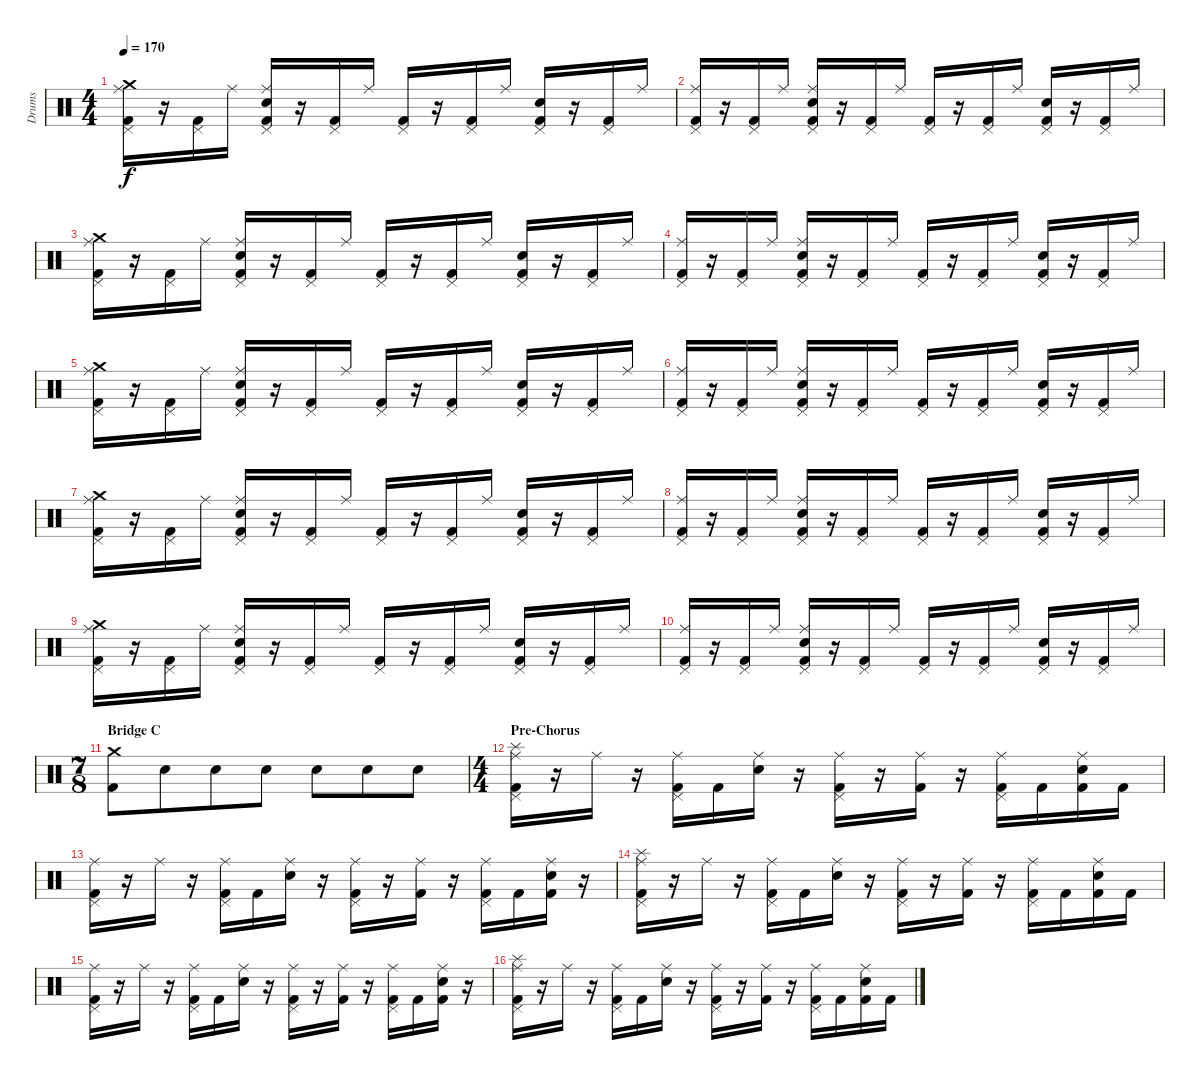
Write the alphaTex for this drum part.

\track ("Drums" "Drums") {instrument percussion}
\staff {score}
\articulation defaults
\ts (4 4)
\tempo 170
\clef neutral
\ks c
("Kick (hit) 2" "Pedal Hi-Hat (hit)" "Ride (middle)" "Crash medium (hit)").16{dy f} r.16 ("Kick (hit) 2" "Pedal Hi-Hat (hit)").16 "Ride (middle)".16 ("Kick (hit) 2" "Pedal Hi-Hat (hit)" "Snare (hit) 2" "Ride (middle)").16 r.16 ("Kick (hit) 2" "Pedal Hi-Hat (hit)").16 "Ride (middle)".16 ("Kick (hit) 2" "Pedal Hi-Hat (hit)").16 r.16 ("Kick (hit) 2" "Pedal Hi-Hat (hit)").16 "Ride (middle)".16 ("Kick (hit) 2" "Pedal Hi-Hat (hit)" "Snare (hit) 2").16 r.16 ("Kick (hit) 2" "Pedal Hi-Hat (hit)").16 "Ride (middle)".16 |
("Kick (hit) 2" "Pedal Hi-Hat (hit)" "Ride (middle)").16 r.16 ("Kick (hit) 2" "Pedal Hi-Hat (hit)").16 "Ride (middle)".16 ("Kick (hit) 2" "Pedal Hi-Hat (hit)" "Snare (hit) 2" "Ride (middle)").16 r.16 ("Kick (hit) 2" "Pedal Hi-Hat (hit)").16 "Ride (middle)".16 ("Kick (hit) 2" "Pedal Hi-Hat (hit)").16 r.16 ("Kick (hit) 2" "Pedal Hi-Hat (hit)").16 "Ride (middle)".16 ("Kick (hit) 2" "Pedal Hi-Hat (hit)" "Snare (hit) 2").16 r.16 ("Kick (hit) 2" "Pedal Hi-Hat (hit)").16 "Ride (middle)".16 |
("Kick (hit) 2" "Pedal Hi-Hat (hit)" "Ride (middle)" "Crash medium (hit)").16 r.16 ("Kick (hit) 2" "Pedal Hi-Hat (hit)").16 "Ride (middle)".16 ("Kick (hit) 2" "Pedal Hi-Hat (hit)" "Snare (hit) 2" "Ride (middle)").16 r.16 ("Kick (hit) 2" "Pedal Hi-Hat (hit)").16 "Ride (middle)".16 ("Kick (hit) 2" "Pedal Hi-Hat (hit)").16 r.16 ("Kick (hit) 2" "Pedal Hi-Hat (hit)").16 "Ride (middle)".16 ("Kick (hit) 2" "Pedal Hi-Hat (hit)" "Snare (hit) 2").16 r.16 ("Kick (hit) 2" "Pedal Hi-Hat (hit)").16 "Ride (middle)".16 |
("Kick (hit) 2" "Pedal Hi-Hat (hit)" "Ride (middle)").16 r.16 ("Kick (hit) 2" "Pedal Hi-Hat (hit)").16 "Ride (middle)".16 ("Kick (hit) 2" "Pedal Hi-Hat (hit)" "Snare (hit) 2" "Ride (middle)").16 r.16 ("Kick (hit) 2" "Pedal Hi-Hat (hit)").16 "Ride (middle)".16 ("Kick (hit) 2" "Pedal Hi-Hat (hit)").16 r.16 ("Kick (hit) 2" "Pedal Hi-Hat (hit)").16 "Ride (middle)".16 ("Kick (hit) 2" "Pedal Hi-Hat (hit)" "Snare (hit) 2").16 r.16 ("Kick (hit) 2" "Pedal Hi-Hat (hit)").16 "Ride (middle)".16 |
("Kick (hit) 2" "Pedal Hi-Hat (hit)" "Ride (middle)" "Crash medium (hit)").16 r.16 ("Kick (hit) 2" "Pedal Hi-Hat (hit)").16 "Ride (middle)".16 ("Kick (hit) 2" "Pedal Hi-Hat (hit)" "Snare (hit) 2" "Ride (middle)").16 r.16 ("Kick (hit) 2" "Pedal Hi-Hat (hit)").16 "Ride (middle)".16 ("Kick (hit) 2" "Pedal Hi-Hat (hit)").16 r.16 ("Kick (hit) 2" "Pedal Hi-Hat (hit)").16 "Ride (middle)".16 ("Kick (hit) 2" "Pedal Hi-Hat (hit)" "Snare (hit) 2").16 r.16 ("Kick (hit) 2" "Pedal Hi-Hat (hit)").16 "Ride (middle)".16 |
("Kick (hit) 2" "Pedal Hi-Hat (hit)" "Ride (middle)").16 r.16 ("Kick (hit) 2" "Pedal Hi-Hat (hit)").16 "Ride (middle)".16 ("Kick (hit) 2" "Pedal Hi-Hat (hit)" "Snare (hit) 2" "Ride (middle)").16 r.16 ("Kick (hit) 2" "Pedal Hi-Hat (hit)").16 "Ride (middle)".16 ("Kick (hit) 2" "Pedal Hi-Hat (hit)").16 r.16 ("Kick (hit) 2" "Pedal Hi-Hat (hit)").16 "Ride (middle)".16 ("Kick (hit) 2" "Pedal Hi-Hat (hit)" "Snare (hit) 2").16 r.16 ("Kick (hit) 2" "Pedal Hi-Hat (hit)").16 "Ride (middle)".16 |
("Kick (hit) 2" "Pedal Hi-Hat (hit)" "Ride (middle)" "Crash medium (hit)").16 r.16 ("Kick (hit) 2" "Pedal Hi-Hat (hit)").16 "Ride (middle)".16 ("Kick (hit) 2" "Pedal Hi-Hat (hit)" "Snare (hit) 2" "Ride (middle)").16 r.16 ("Kick (hit) 2" "Pedal Hi-Hat (hit)").16 "Ride (middle)".16 ("Kick (hit) 2" "Pedal Hi-Hat (hit)").16 r.16 ("Kick (hit) 2" "Pedal Hi-Hat (hit)").16 "Ride (middle)".16 ("Kick (hit) 2" "Pedal Hi-Hat (hit)" "Snare (hit) 2").16 r.16 ("Kick (hit) 2" "Pedal Hi-Hat (hit)").16 "Ride (middle)".16 |
("Kick (hit) 2" "Pedal Hi-Hat (hit)" "Ride (middle)").16 r.16 ("Kick (hit) 2" "Pedal Hi-Hat (hit)").16 "Ride (middle)".16 ("Kick (hit) 2" "Pedal Hi-Hat (hit)" "Snare (hit) 2" "Ride (middle)").16 r.16 ("Kick (hit) 2" "Pedal Hi-Hat (hit)").16 "Ride (middle)".16 ("Kick (hit) 2" "Pedal Hi-Hat (hit)").16 r.16 ("Kick (hit) 2" "Pedal Hi-Hat (hit)").16 "Ride (middle)".16 ("Kick (hit) 2" "Pedal Hi-Hat (hit)" "Snare (hit) 2").16 r.16 ("Kick (hit) 2" "Pedal Hi-Hat (hit)").16 "Ride (middle)".16 |
("Kick (hit) 2" "Pedal Hi-Hat (hit)" "Ride (middle)" "Crash medium (hit)").16 r.16 ("Kick (hit) 2" "Pedal Hi-Hat (hit)").16 "Ride (middle)".16 ("Kick (hit) 2" "Pedal Hi-Hat (hit)" "Snare (hit) 2" "Ride (middle)").16 r.16 ("Kick (hit) 2" "Pedal Hi-Hat (hit)").16 "Ride (middle)".16 ("Kick (hit) 2" "Pedal Hi-Hat (hit)").16 r.16 ("Kick (hit) 2" "Pedal Hi-Hat (hit)").16 "Ride (middle)".16 ("Kick (hit) 2" "Pedal Hi-Hat (hit)" "Snare (hit) 2").16 r.16 ("Kick (hit) 2" "Pedal Hi-Hat (hit)").16 "Ride (middle)".16 |
("Kick (hit) 2" "Pedal Hi-Hat (hit)" "Ride (middle)").16 r.16 ("Kick (hit) 2" "Pedal Hi-Hat (hit)").16 "Ride (middle)".16 ("Kick (hit) 2" "Pedal Hi-Hat (hit)" "Snare (hit) 2" "Ride (middle)").16 r.16 ("Kick (hit) 2" "Pedal Hi-Hat (hit)").16 "Ride (middle)".16 ("Kick (hit) 2" "Pedal Hi-Hat (hit)").16 r.16 ("Kick (hit) 2" "Pedal Hi-Hat (hit)").16 "Ride (middle)".16 ("Kick (hit) 2" "Pedal Hi-Hat (hit)" "Snare (hit) 2").16 r.16 ("Kick (hit) 2" "Pedal Hi-Hat (hit)").16 "Ride (middle)".16 |
\ts (7 8)
\section ("" "Bridge C")
("Kick (hit) 2" "Crash medium (hit)").8 "Snare (hit) 2".8 "Snare (hit) 2".8 "Snare (hit) 2".8 "Snare (hit) 2".8 "Snare (hit) 2".8 "Snare (hit) 2".8 |
\ts (4 4)
\section ("" "Pre-Chorus")
("Kick (hit) 2" "Pedal Hi-Hat (hit)" "Splash (hit)" "Ride (middle)").16 r.16 "Ride (middle)".16 r.16 ("Kick (hit) 2" "Pedal Hi-Hat (hit)" "Ride (middle)").16 "Kick (hit) 2".16 ("Snare (hit) 2" "Ride (middle)").16 r.16 ("Kick (hit) 2" "Pedal Hi-Hat (hit)" "Ride (middle)").16 r.16 ("Kick (hit) 2" "Ride (middle)").16 r.16 ("Kick (hit) 2" "Pedal Hi-Hat (hit)" "Ride (middle)").16 "Kick (hit) 2".16 ("Kick (hit) 2" "Snare (hit) 2" "Ride (middle)").16 "Kick (hit) 2".16 |
("Kick (hit) 2" "Pedal Hi-Hat (hit)" "Ride (middle)").16 r.16 "Ride (middle)".16 r.16 ("Kick (hit) 2" "Pedal Hi-Hat (hit)" "Ride (middle)").16 "Kick (hit) 2".16 ("Snare (hit) 2" "Ride (middle)").16 r.16 ("Kick (hit) 2" "Pedal Hi-Hat (hit)" "Ride (middle)").16 r.16 ("Kick (hit) 2" "Ride (middle)").16 r.16 ("Kick (hit) 2" "Pedal Hi-Hat (hit)" "Ride (middle)").16 "Kick (hit) 2".16 ("Kick (hit) 2" "Snare (hit) 2" "Ride (middle)").16 r.16 |
("Kick (hit) 2" "Pedal Hi-Hat (hit)" "Splash (hit)" "Ride (middle)").16 r.16 "Ride (middle)".16 r.16 ("Kick (hit) 2" "Pedal Hi-Hat (hit)" "Ride (middle)").16 "Kick (hit) 2".16 ("Snare (hit) 2" "Ride (middle)").16 r.16 ("Kick (hit) 2" "Pedal Hi-Hat (hit)" "Ride (middle)").16 r.16 ("Kick (hit) 2" "Ride (middle)").16 r.16 ("Kick (hit) 2" "Pedal Hi-Hat (hit)" "Ride (middle)").16 "Kick (hit) 2".16 ("Kick (hit) 2" "Snare (hit) 2" "Ride (middle)").16 "Kick (hit) 2".16 |
("Kick (hit) 2" "Pedal Hi-Hat (hit)" "Ride (middle)").16 r.16 "Ride (middle)".16 r.16 ("Kick (hit) 2" "Pedal Hi-Hat (hit)" "Ride (middle)").16 "Kick (hit) 2".16 ("Snare (hit) 2" "Ride (middle)").16 r.16 ("Kick (hit) 2" "Pedal Hi-Hat (hit)" "Ride (middle)").16 r.16 ("Kick (hit) 2" "Ride (middle)").16 r.16 ("Kick (hit) 2" "Pedal Hi-Hat (hit)" "Ride (middle)").16 "Kick (hit) 2".16 ("Kick (hit) 2" "Snare (hit) 2" "Ride (middle)").16 r.16 |
("Kick (hit) 2" "Pedal Hi-Hat (hit)" "Splash (hit)" "Ride (middle)").16 r.16 "Ride (middle)".16 r.16 ("Kick (hit) 2" "Pedal Hi-Hat (hit)" "Ride (middle)").16 "Kick (hit) 2".16 ("Snare (hit) 2" "Ride (middle)").16 r.16 ("Kick (hit) 2" "Pedal Hi-Hat (hit)" "Ride (middle)").16 r.16 ("Kick (hit) 2" "Ride (middle)").16 r.16 ("Kick (hit) 2" "Pedal Hi-Hat (hit)" "Ride (middle)").16 "Kick (hit) 2".16 ("Kick (hit) 2" "Snare (hit) 2" "Ride (middle)").16 "Kick (hit) 2".16
